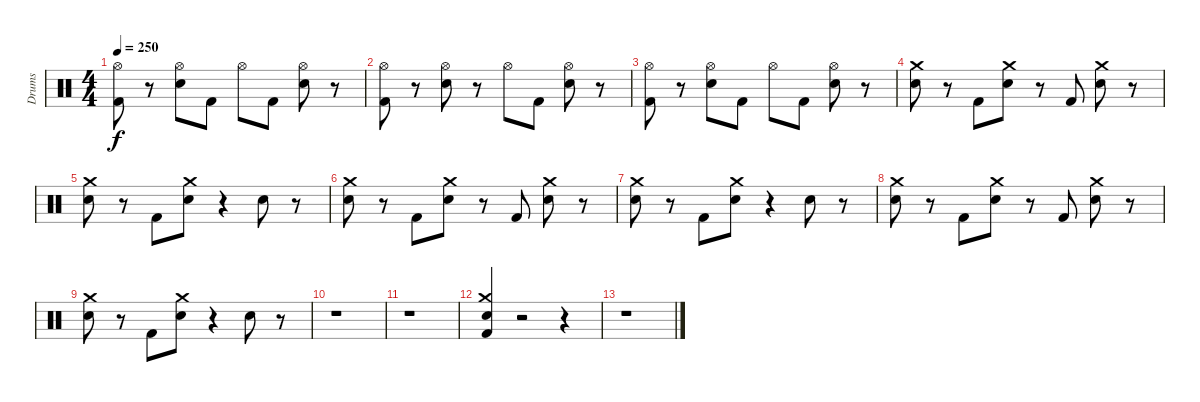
\track ("Drums" "Drums") {instrument percussion}
\staff {score}
\articulation defaults
\ts (4 4)
\tempo 250
\clef neutral
\ks c
("Hi-Hat (open)" "Kick (hit) 2").8{dy f} r.8 ("Hi-Hat (open)" "Electric Snare (hit)").8 "Kick (hit) 2".8 "Hi-Hat (open)".8 "Kick (hit) 2".8 ("Hi-Hat (open)" "Electric Snare (hit)").8 r.8 |
("Hi-Hat (open)" "Kick (hit) 2").8 r.8 ("Hi-Hat (open)" "Electric Snare (hit)").8 r.8 "Hi-Hat (open)".8 "Kick (hit) 2".8 ("Hi-Hat (open)" "Electric Snare (hit)").8 r.8 |
("Hi-Hat (open)" "Kick (hit) 2").8 r.8 ("Hi-Hat (open)" "Electric Snare (hit)").8 "Kick (hit) 2".8 "Hi-Hat (open)".8 "Kick (hit) 2".8 ("Hi-Hat (open)" "Electric Snare (hit)").8 r.8 |
("Electric Snare (hit)" "Crash medium (hit)").8 r.8 "Kick (hit) 2".8 ("Electric Snare (hit)" "Crash medium (hit)").8 r.8 "Kick (hit) 2".8 ("Crash medium (hit)" "Electric Snare (hit)").8 r.8 |
("Electric Snare (hit)" "Crash medium (hit)").8 r.8 "Kick (hit) 2".8 ("Electric Snare (hit)" "Crash medium (hit)").8 r.4 "Electric Snare (hit)".8 r.8 |
("Electric Snare (hit)" "Crash medium (hit)").8 r.8 "Kick (hit) 2".8 ("Electric Snare (hit)" "Crash medium (hit)").8 r.8 "Kick (hit) 2".8 ("Crash medium (hit)" "Electric Snare (hit)").8 r.8 |
("Electric Snare (hit)" "Crash medium (hit)").8 r.8 "Kick (hit) 2".8 ("Electric Snare (hit)" "Crash medium (hit)").8 r.4 "Electric Snare (hit)".8 r.8 |
("Electric Snare (hit)" "Crash medium (hit)").8 r.8 "Kick (hit) 2".8 ("Electric Snare (hit)" "Crash medium (hit)").8 r.8 "Kick (hit) 2".8 ("Crash medium (hit)" "Electric Snare (hit)").8 r.8 |
("Electric Snare (hit)" "Crash medium (hit)").8 r.8 "Kick (hit) 2".8 ("Electric Snare (hit)" "Crash medium (hit)").8 r.4 "Electric Snare (hit)".8 r.8 |
r.1 |
r.1 |
("Crash medium (hit)" "Kick (hit) 2" "Snare (hit) 2").4 r.2 r.4 |
r.1
